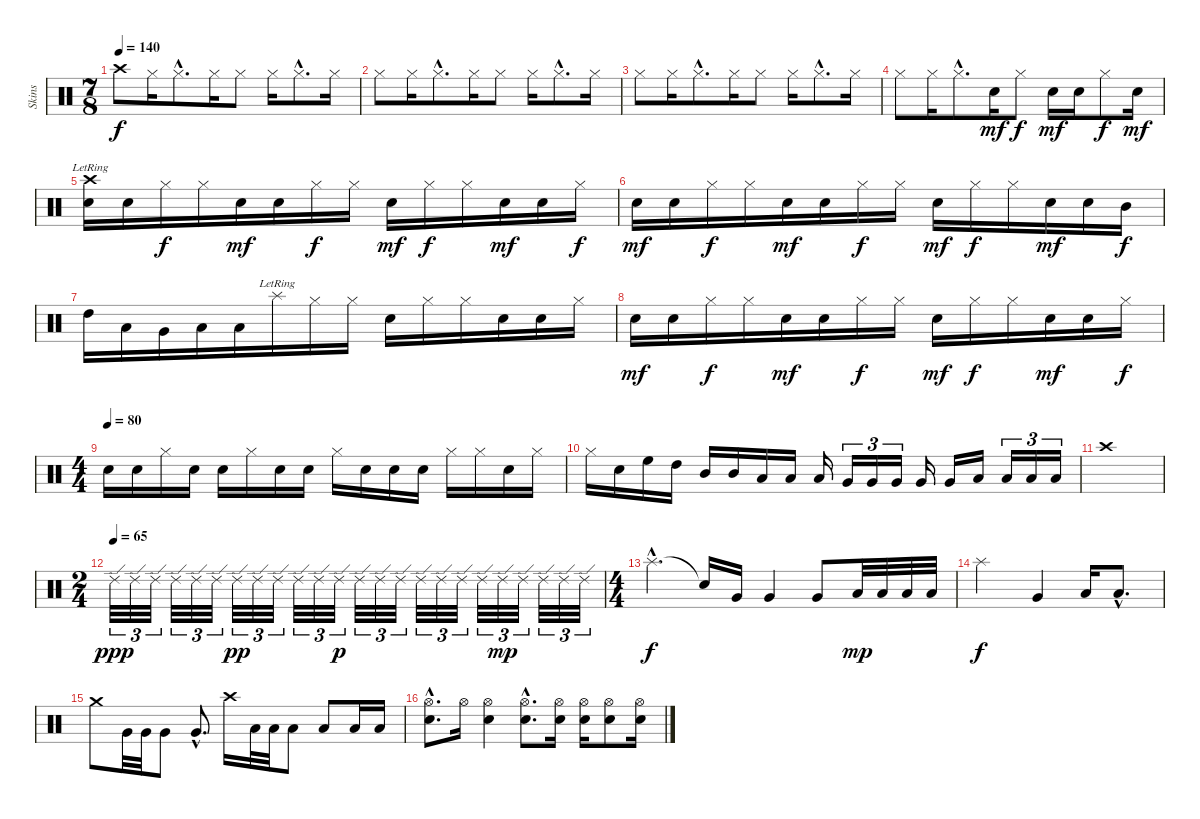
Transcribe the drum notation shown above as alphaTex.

\track ("Skins" "Skins") {instrument percussion}
\staff {score}
\articulation defaults
\ts (7 8)
\tempo 140
\clef neutral
\ks c "Crash high (hit)".8{dy f} "Hi-Hat (closed)".16 "Hi-Hat (closed)"{hac}.8{d} "Hi-Hat (closed)".16 "Hi-Hat (closed)".8 "Hi-Hat (closed)".16 "Hi-Hat (closed)"{hac}.8{d} "Hi-Hat (closed)".16
|
"Hi-Hat (closed)".8 "Hi-Hat (closed)".16 "Hi-Hat (closed)"{hac}.8{d} "Hi-Hat (closed)".16 "Hi-Hat (closed)".8 "Hi-Hat (closed)".16 "Hi-Hat (closed)"{hac}.8{d} "Hi-Hat (closed)".16 |
"Hi-Hat (closed)".8 "Hi-Hat (closed)".16 "Hi-Hat (closed)"{hac}.8{d} "Hi-Hat (closed)".16 "Hi-Hat (closed)".8 "Hi-Hat (closed)".16 "Hi-Hat (closed)"{hac}.8{d} "Hi-Hat (closed)".16 |
"Hi-Hat (closed)".8 "Hi-Hat (closed)".16 "Hi-Hat (closed)"{hac}.8{d} "Snare (hit) 2".16{dy mf} "Hi-Hat (closed)".8{dy f} "Snare (hit) 2".16{dy mf} "Snare (hit) 2".16 "Hi-Hat (closed)".8{dy f} "Snare (hit) 2".16{dy mf} |
("Crash high (hit)"{lr} "Snare (hit) 2").16 "Snare (hit) 2".16 "Hi-Hat (closed)".16{dy f} "Hi-Hat (closed)".16 "Snare (hit) 2".16{dy mf} "Snare (hit) 2".16 "Hi-Hat (closed)".16{dy f} "Hi-Hat (closed)".16 "Snare (hit) 2".16{dy mf} "Hi-Hat (closed)".16{dy f} "Hi-Hat (closed)".16 "Snare (hit) 2".16{dy mf} "Snare (hit) 2".16 "Hi-Hat (closed)".16{dy f} |
"Snare (hit) 2".16{dy mf} "Snare (hit) 2".16 "Hi-Hat (closed)".16{dy f} "Hi-Hat (closed)".16 "Snare (hit) 2".16{dy mf} "Snare (hit) 2".16 "Hi-Hat (closed)".16{dy f} "Hi-Hat (closed)".16 "Snare (hit) 2".16{dy mf} "Hi-Hat (closed)".16{dy f} "Hi-Hat (closed)".16 "Snare (hit) 2".16{dy mf} "Snare (hit) 2".16 "Mid Tom (hit)".16{dy f} |
"High Tom (hit)".16 "Low Tom (hit)".16 "Very Low Tom (hit)".16 "Low Tom (hit)".16 "Low Floor Tom (hit)".16 "Splash (hit)"{lr}.16 "Hi-Hat (closed)".16 "Hi-Hat (closed)".16 "Snare (hit) 2".16 "Hi-Hat (closed)".16 "Hi-Hat (closed)".16 "Snare (hit) 2".16 "Snare (hit) 2".16 "Hi-Hat (closed)".16 |
"Snare (hit) 2".16{dy mf} "Snare (hit) 2".16 "Hi-Hat (closed)".16{dy f} "Hi-Hat (closed)".16 "Snare (hit) 2".16{dy mf} "Snare (hit) 2".16 "Hi-Hat (closed)".16{dy f} "Hi-Hat (closed)".16 "Snare (hit) 2".16{dy mf} "Hi-Hat (closed)".16{dy f} "Hi-Hat (closed)".16 "Snare (hit) 2".16{dy mf} "Snare (hit) 2".16 "Hi-Hat (closed)".16{dy f} |
\ts (4 4)
\tempo (80)
"Snare (hit) 2".16 "Snare (hit) 2".16 "Hi-Hat (closed)".16 "Snare (hit) 2".16 "Snare (hit) 2".16 "Hi-Hat (closed)".16 "Snare (hit) 2".16 "Snare (hit) 2".16 "Hi-Hat (closed)".16 "Snare (hit) 2".16 "Snare (hit) 2".16 "Snare (hit) 2".16 "Hi-Hat (closed)".16 "Hi-Hat (closed)".16 "Snare (hit) 2".16 "Hi-Hat (closed)".16 |
"Hi-Hat (closed)".16 "Snare (hit) 2".16 "High Floor Tom (hit)".16 "High Tom (hit)".16 "Mid Tom (hit)".16 "Mid Tom (hit)".16 "Low Tom (hit)".16 "Low Tom (hit)".16 "Low Tom (hit)".16 "Very Low Tom (hit)".16{tu (3 2)} "Very Low Tom (hit)".16{tu (3 2)} "Very Low Tom (hit)".16{tu (3 2)} "Very Low Tom (hit)".16 "Very Low Tom (hit)".16 "Low Floor Tom (hit)".16 "Low Floor Tom (hit)".16{tu (3 2)} "Low Floor Tom (hit)".16{tu (3 2)} "Low Floor Tom (hit)".16{tu (3 2)} |
"Crash high (hit)".1 |
\ts (2 4)
\tempo (65)
"Ride (edge) 2".32{tu (3 2) dy ppp} "Ride (edge) 2".32{tu (3 2)} "Ride (edge) 2".32{tu (3 2)} "Ride (edge) 2".32{tu (3 2)} "Ride (edge) 2".32{tu (3 2)} "Ride (edge) 2".32{tu (3 2)} "Ride (edge) 2".32{tu (3 2) dy pp} "Ride (edge) 2".32{tu (3 2)} "Ride (edge) 2".32{tu (3 2)} "Ride (edge) 2".32{tu (3 2)} "Ride (edge) 2".32{tu (3 2)} "Ride (edge) 2".32{tu (3 2) dy p} "Ride (edge) 2".32{tu (3 2)} "Ride (edge) 2".32{tu (3 2)} "Ride (edge) 2".32{tu (3 2)} "Ride (edge) 2".32{tu (3 2)} "Ride (edge) 2".32{tu (3 2)} "Ride (edge) 2".32{tu (3 2)} "Ride (edge) 2".32{tu (3 2)} "Ride (edge) 2".32{tu (3 2) dy mp} "Ride (edge) 2".32{tu (3 2)} "Ride (edge) 2".32{tu (3 2)} "Ride (edge) 2".32{tu (3 2)} "Ride (edge) 2".32{tu (3 2)} |
\ts (4 4)
"Splash (hit)"{hac}.4{d dy f} "Snare (hit)"{t}.16 "Very Low Tom (hit)".16 "Very Low Tom (hit)".4 "Very Low Tom (hit)".8 "Low Floor Tom (hit)".32{dy mp} "Low Floor Tom (hit)".32 "Low Floor Tom (hit)".32 "Low Floor Tom (hit)".32 |
"Splash (hit)".2{dy f} "Very Low Tom (hit)".4 "Low Floor Tom (hit)".16 "Low Floor Tom (hit)"{hac}.8{d} |
"Crash medium (hit)".8 "Very Low Tom (hit)".32 "Very Low Tom (hit)".32 "Very Low Tom (hit)".8 "Very Low Tom (hit)"{hac}.8{d} "Crash high (hit)".16 "Low Floor Tom (hit)".32 "Low Floor Tom (hit)".32 "Low Floor Tom (hit)".8 "Low Floor Tom (hit)".8 "Low Floor Tom (hit)".16 "Low Floor Tom (hit)".16 |
("Hi-Hat (open)"{hac} "Electric Snare (hit)"{hac}).8{d} "Hi-Hat (open)".16 ("Hi-Hat (open)" "Electric Snare (hit)").4 ("Hi-Hat (open)"{hac} "Electric Snare (hit)"{hac}).8{d} ("Hi-Hat (open)" "Snare (hit) 2").16 ("Hi-Hat (open)" "Snare (hit) 2").16 ("Hi-Hat (open)" "Electric Snare (hit)").8 ("Hi-Hat (open)" "Snare (hit) 2").16
